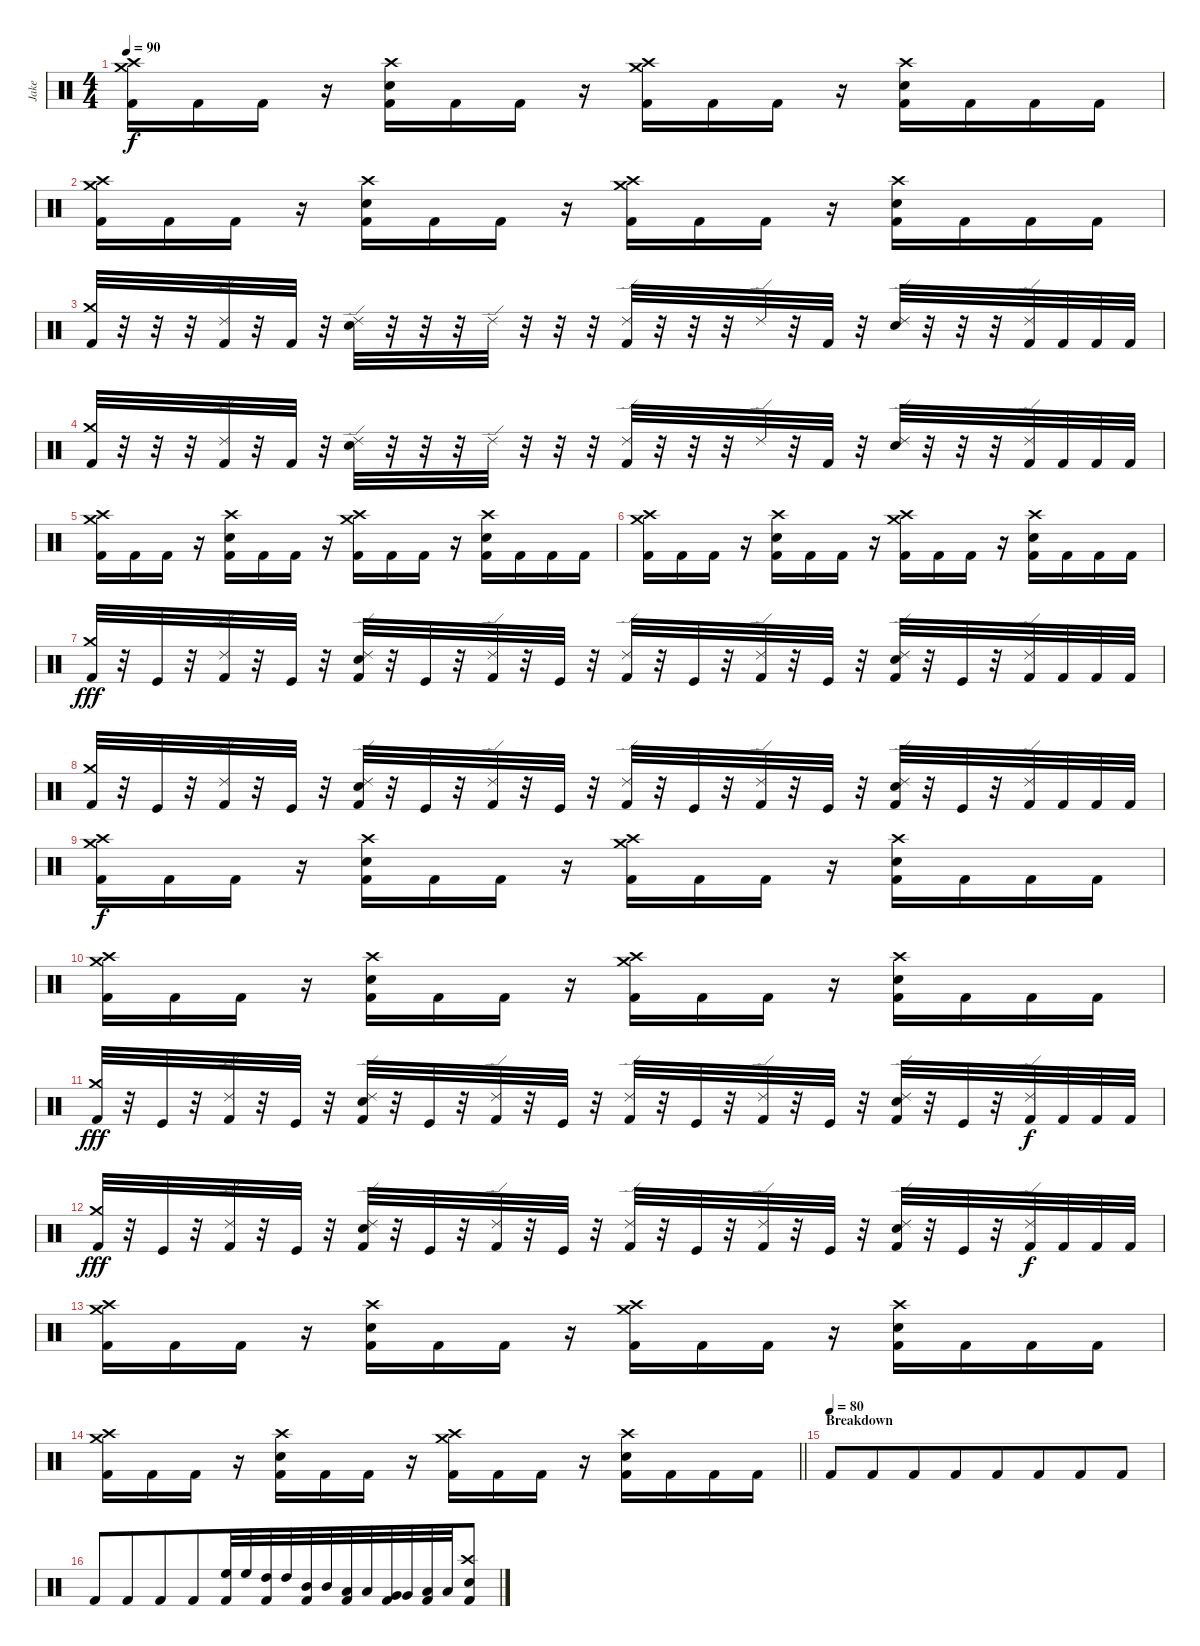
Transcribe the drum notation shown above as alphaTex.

\track ("Jake" "Jake") {instrument percussion}
\staff {score}
\articulation defaults
\ts (4 4)
\tempo 90
\clef neutral
\ks c
("Crash medium (hit)" "Crash high (hit)" "Kick (hit) 2").16{dy f beam merge} "Kick (hit) 2".16{beam merge} "Kick (hit) 2".16 r.16 ("Crash high (hit)" "Electric Snare (hit)" "Kick (hit) 2").16{beam merge} "Kick (hit) 2".16{beam merge} "Kick (hit) 2".16 r.16 ("Crash medium (hit)" "Crash high (hit)" "Kick (hit) 2").16{beam merge} "Kick (hit) 2".16{beam merge} "Kick (hit) 2".16 r.16 ("Crash high (hit)" "Electric Snare (hit)" "Kick (hit) 2").16{beam merge} "Kick (hit) 2".16{beam merge} "Kick (hit) 2".16{beam merge} "Kick (hit) 2".16 |
("Crash medium (hit)" "Crash high (hit)" "Kick (hit) 2").16{beam merge} "Kick (hit) 2".16{beam merge} "Kick (hit) 2".16 r.16 ("Crash high (hit)" "Electric Snare (hit)" "Kick (hit) 2").16{beam merge} "Kick (hit) 2".16{beam merge} "Kick (hit) 2".16 r.16 ("Crash medium (hit)" "Crash high (hit)" "Kick (hit) 2").16{beam merge} "Kick (hit) 2".16{beam merge} "Kick (hit) 2".16 r.16 ("Crash high (hit)" "Electric Snare (hit)" "Kick (hit) 2").16{beam merge} "Kick (hit) 2".16{beam merge} "Kick (hit) 2".16{beam merge} "Kick (hit) 2".16 |
("Crash medium (hit)" "Kick (hit) 2").32 r.32 r.32 r.32 ("Ride (edge) 2" "Kick (hit) 2").32 r.32 "Kick (hit) 2".32{beam Up} r.32 ("Ride (edge) 2" "Electric Snare (hit)").32 r.32 r.32 r.32 "Ride (edge) 2".32 r.32 r.32 r.32 ("Ride (edge) 2" "Kick (hit) 2").32 r.32 r.32 r.32 "Ride (edge) 2".32 r.32 "Kick (hit) 2".32{beam Up} r.32 ("Ride (edge) 2" "Electric Snare (hit)").32 r.32 r.32 r.32 ("Ride (edge) 2" "Kick (hit) 2").32{beam merge} "Kick (hit) 2".32{beam merge} "Kick (hit) 2".32{beam merge} "Kick (hit) 2".32 |
("Crash medium (hit)" "Kick (hit) 2").32 r.32 r.32 r.32 ("Ride (edge) 2" "Kick (hit) 2").32 r.32 "Kick (hit) 2".32{beam Up} r.32 ("Ride (edge) 2" "Electric Snare (hit)").32 r.32 r.32 r.32 "Ride (edge) 2".32 r.32 r.32 r.32 ("Ride (edge) 2" "Kick (hit) 2").32 r.32 r.32 r.32 "Ride (edge) 2".32 r.32 "Kick (hit) 2".32{beam Up} r.32 ("Ride (edge) 2" "Electric Snare (hit)").32 r.32 r.32 r.32 ("Ride (edge) 2" "Kick (hit) 2").32{beam merge} "Kick (hit) 2".32{beam merge} "Kick (hit) 2".32{beam merge} "Kick (hit) 2".32 |
("Crash medium (hit)" "Crash high (hit)" "Kick (hit) 2").16{beam merge} "Kick (hit) 2".16{beam merge} "Kick (hit) 2".16 r.16 ("Crash high (hit)" "Electric Snare (hit)" "Kick (hit) 2").16{beam merge} "Kick (hit) 2".16{beam merge} "Kick (hit) 2".16 r.16 ("Crash medium (hit)" "Crash high (hit)" "Kick (hit) 2").16{beam merge} "Kick (hit) 2".16{beam merge} "Kick (hit) 2".16 r.16 ("Crash high (hit)" "Electric Snare (hit)" "Kick (hit) 2").16{beam merge} "Kick (hit) 2".16{beam merge} "Kick (hit) 2".16{beam merge} "Kick (hit) 2".16 |
("Crash medium (hit)" "Crash high (hit)" "Kick (hit) 2").16{beam merge} "Kick (hit) 2".16{beam merge} "Kick (hit) 2".16 r.16 ("Crash high (hit)" "Electric Snare (hit)" "Kick (hit) 2").16{beam merge} "Kick (hit) 2".16{beam merge} "Kick (hit) 2".16 r.16 ("Crash medium (hit)" "Crash high (hit)" "Kick (hit) 2").16{beam merge} "Kick (hit) 2".16{beam merge} "Kick (hit) 2".16 r.16 ("Crash high (hit)" "Electric Snare (hit)" "Kick (hit) 2").16{beam merge} "Kick (hit) 2".16{beam merge} "Kick (hit) 2".16{beam merge} "Kick (hit) 2".16 |
("Crash medium (hit)" "Kick (hit) 2").32{dy fff} r.32 "Kick (hit)".32{beam Up} r.32 ("Ride (edge) 2" "Kick (hit) 2").32 r.32 "Kick (hit)".32{beam Up} r.32 ("Ride (edge) 2" "Electric Snare (hit)" "Kick (hit) 2").32 r.32 "Kick (hit)".32{beam Up} r.32 ("Ride (edge) 2" "Kick (hit) 2").32 r.32 "Kick (hit)".32{beam Up} r.32 ("Ride (edge) 2" "Kick (hit) 2").32 r.32 "Kick (hit)".32{beam Up} r.32 ("Ride (edge) 2" "Kick (hit) 2").32 r.32 "Kick (hit)".32{beam Up} r.32 ("Ride (edge) 2" "Electric Snare (hit)" "Kick (hit) 2").32 r.32 "Kick (hit)".32{beam Up} r.32 ("Ride (edge) 2" "Kick (hit) 2").32{beam merge} "Kick (hit) 2".32{beam merge} "Kick (hit) 2".32{beam merge} "Kick (hit) 2".32 |
("Crash medium (hit)" "Kick (hit) 2").32 r.32 "Kick (hit)".32{beam Up} r.32 ("Ride (edge) 2" "Kick (hit) 2").32 r.32 "Kick (hit)".32{beam Up} r.32 ("Ride (edge) 2" "Electric Snare (hit)" "Kick (hit) 2").32 r.32 "Kick (hit)".32{beam Up} r.32 ("Ride (edge) 2" "Kick (hit) 2").32 r.32 "Kick (hit)".32{beam Up} r.32 ("Ride (edge) 2" "Kick (hit) 2").32 r.32 "Kick (hit)".32{beam Up} r.32 ("Ride (edge) 2" "Kick (hit) 2").32 r.32 "Kick (hit)".32{beam Up} r.32 ("Ride (edge) 2" "Electric Snare (hit)" "Kick (hit) 2").32 r.32 "Kick (hit)".32{beam Up} r.32 ("Ride (edge) 2" "Kick (hit) 2").32{beam merge} "Kick (hit) 2".32{beam merge} "Kick (hit) 2".32{beam merge} "Kick (hit) 2".32 |
("Crash medium (hit)" "Crash high (hit)" "Kick (hit) 2").16{dy f beam merge} "Kick (hit) 2".16{beam merge} "Kick (hit) 2".16 r.16 ("Crash high (hit)" "Electric Snare (hit)" "Kick (hit) 2").16{beam merge} "Kick (hit) 2".16{beam merge} "Kick (hit) 2".16 r.16 ("Crash medium (hit)" "Crash high (hit)" "Kick (hit) 2").16{beam merge} "Kick (hit) 2".16{beam merge} "Kick (hit) 2".16 r.16 ("Crash high (hit)" "Electric Snare (hit)" "Kick (hit) 2").16{beam merge} "Kick (hit) 2".16{beam merge} "Kick (hit) 2".16{beam merge} "Kick (hit) 2".16 |
("Crash medium (hit)" "Crash high (hit)" "Kick (hit) 2").16{beam merge} "Kick (hit) 2".16{beam merge} "Kick (hit) 2".16 r.16 ("Crash high (hit)" "Electric Snare (hit)" "Kick (hit) 2").16{beam merge} "Kick (hit) 2".16{beam merge} "Kick (hit) 2".16 r.16 ("Crash medium (hit)" "Crash high (hit)" "Kick (hit) 2").16{beam merge} "Kick (hit) 2".16{beam merge} "Kick (hit) 2".16 r.16 ("Crash high (hit)" "Electric Snare (hit)" "Kick (hit) 2").16{beam merge} "Kick (hit) 2".16{beam merge} "Kick (hit) 2".16{beam merge} "Kick (hit) 2".16 |
("Crash medium (hit)" "Kick (hit) 2").32{dy fff} r.32 "Kick (hit)".32{beam Up} r.32 ("Ride (edge) 2" "Kick (hit) 2").32 r.32 "Kick (hit)".32{beam Up} r.32 ("Ride (edge) 2" "Electric Snare (hit)" "Kick (hit) 2").32 r.32 "Kick (hit)".32{beam Up} r.32 ("Ride (edge) 2" "Kick (hit) 2").32 r.32 "Kick (hit)".32{beam Up} r.32 ("Ride (edge) 2" "Kick (hit) 2").32 r.32 "Kick (hit)".32{beam Up} r.32 ("Ride (edge) 2" "Kick (hit) 2").32 r.32 "Kick (hit)".32{beam Up} r.32 ("Ride (edge) 2" "Electric Snare (hit)" "Kick (hit) 2").32 r.32 "Kick (hit)".32{beam Up} r.32 ("Ride (edge) 2" "Kick (hit) 2").32{dy f beam merge} "Kick (hit) 2".32{beam merge} "Kick (hit) 2".32{beam merge} "Kick (hit) 2".32 |
("Crash medium (hit)" "Kick (hit) 2").32{dy fff} r.32 "Kick (hit)".32{beam Up} r.32 ("Ride (edge) 2" "Kick (hit) 2").32 r.32 "Kick (hit)".32{beam Up} r.32 ("Ride (edge) 2" "Electric Snare (hit)" "Kick (hit) 2").32 r.32 "Kick (hit)".32{beam Up} r.32 ("Ride (edge) 2" "Kick (hit) 2").32 r.32 "Kick (hit)".32{beam Up} r.32 ("Ride (edge) 2" "Kick (hit) 2").32 r.32 "Kick (hit)".32{beam Up} r.32 ("Ride (edge) 2" "Kick (hit) 2").32 r.32 "Kick (hit)".32{beam Up} r.32 ("Ride (edge) 2" "Electric Snare (hit)" "Kick (hit) 2").32 r.32 "Kick (hit)".32{beam Up} r.32 ("Ride (edge) 2" "Kick (hit) 2").32{dy f beam merge} "Kick (hit) 2".32{beam merge} "Kick (hit) 2".32{beam merge} "Kick (hit) 2".32 |
("Crash medium (hit)" "Crash high (hit)" "Kick (hit) 2").16{beam merge} "Kick (hit) 2".16{beam merge} "Kick (hit) 2".16 r.16 ("Crash high (hit)" "Electric Snare (hit)" "Kick (hit) 2").16{beam merge} "Kick (hit) 2".16{beam merge} "Kick (hit) 2".16 r.16 ("Crash medium (hit)" "Crash high (hit)" "Kick (hit) 2").16{beam merge} "Kick (hit) 2".16{beam merge} "Kick (hit) 2".16 r.16 ("Crash high (hit)" "Electric Snare (hit)" "Kick (hit) 2").16{beam merge} "Kick (hit) 2".16{beam merge} "Kick (hit) 2".16{beam merge} "Kick (hit) 2".16 |
\barLineRight lightlight
("Crash medium (hit)" "Crash high (hit)" "Kick (hit) 2").16{beam merge} "Kick (hit) 2".16{beam merge} "Kick (hit) 2".16 r.16 ("Crash high (hit)" "Electric Snare (hit)" "Kick (hit) 2").16{beam merge} "Kick (hit) 2".16{beam merge} "Kick (hit) 2".16 r.16 ("Crash medium (hit)" "Crash high (hit)" "Kick (hit) 2").16{beam merge} "Kick (hit) 2".16{beam merge} "Kick (hit) 2".16 r.16 ("Crash high (hit)" "Electric Snare (hit)" "Kick (hit) 2").16{beam merge} "Kick (hit) 2".16{beam merge} "Kick (hit) 2".16{beam merge} "Kick (hit) 2".16 |
\section ("" "Breakdown")
\tempo (80)
"Kick (hit) 2".8{beam Up beam merge} "Kick (hit) 2".8{beam Up beam merge} "Kick (hit) 2".8{beam Up beam merge} "Kick (hit) 2".8{beam Up beam merge} "Kick (hit) 2".8{beam Up beam merge} "Kick (hit) 2".8{beam Up beam merge} "Kick (hit) 2".8{beam Up beam merge} "Kick (hit) 2".8{beam Up} |
"Kick (hit) 2".8{beam Up beam merge} "Kick (hit) 2".8{beam Up beam merge} "Kick (hit) 2".8{beam Up beam merge} "Kick (hit) 2".8{beam Up beam merge} ("High Floor Tom (hit)" "Kick (hit) 2").32{beam merge} "High Floor Tom (hit)".32{beam merge} ("High Tom (hit)" "Kick (hit) 2").32{beam merge} "High Tom (hit)".32{beam merge} ("Mid Tom (hit)" "Kick (hit) 2").32{beam merge} "Mid Tom (hit)".32{beam merge} ("Low Tom (hit)" "Kick (hit) 2").32{beam merge} "Low Tom (hit)".32{beam merge} ("Very Low Tom (hit)" "Kick (hit) 2").32{beam merge} "Very Low Tom (hit)".32{beam merge} ("Low Floor Tom (hit)" "Kick (hit) 2").32{beam merge} "Low Floor Tom (hit)".32{beam merge} ("Crash high (hit)" "Electric Snare (hit)" "Kick (hit) 2").8
